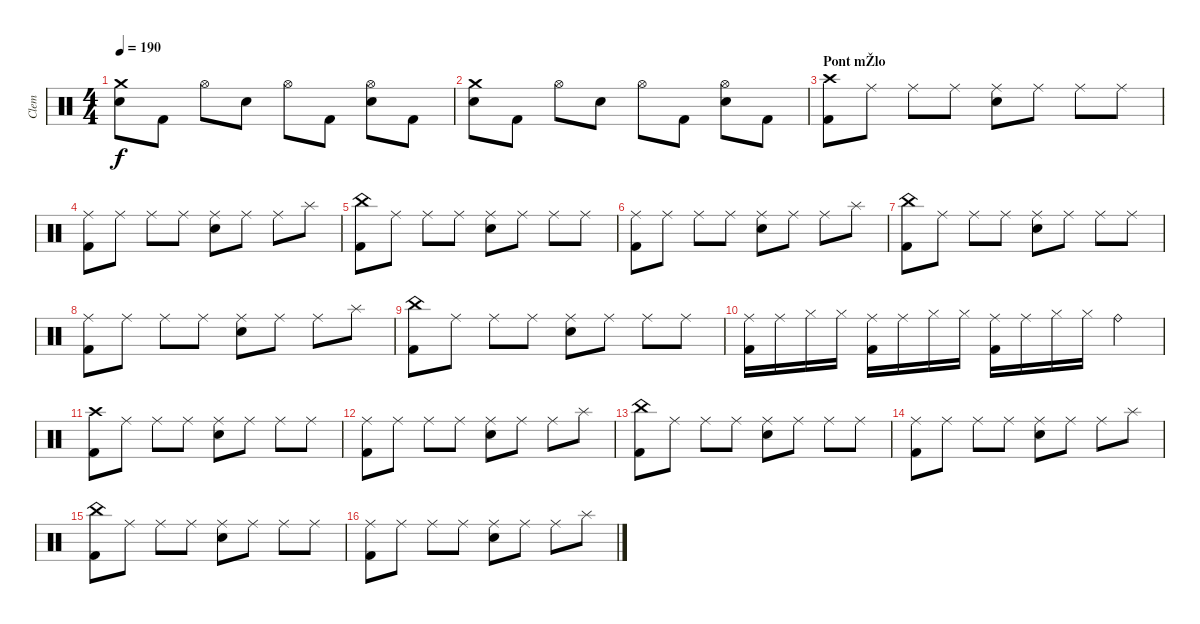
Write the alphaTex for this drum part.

\track ("Clem" "Clem") {instrument percussion}
\staff {score}
\articulation defaults
\ts (4 4)
\tempo 190
\clef neutral
\ks c
("Crash medium (hit)" "Electric Snare (hit)").8{dy f} "Kick (hit) 2".8 "Hi-Hat (open)".8 "Electric Snare (hit)".8 "Hi-Hat (open)".8 "Kick (hit) 2".8 ("Hi-Hat (open)" "Electric Snare (hit)").8 "Kick (hit) 2".8 |
("Crash medium (hit)" "Electric Snare (hit)").8 "Kick (hit) 2".8 "Hi-Hat (open)".8 "Electric Snare (hit)".8 "Hi-Hat (open)".8 "Kick (hit) 2".8 ("Hi-Hat (open)" "Electric Snare (hit)").8 "Kick (hit) 2".8 |
\section ("" "Pont mŽlo")
("Crash high (hit)" "Kick (hit) 2").8 "Ride (middle)".8 "Ride (middle)".8 "Ride (middle)".8 ("Ride (middle)" "Electric Snare (hit)").8 "Ride (middle)".8 "Ride (middle)".8 "Ride (middle)".8 |
("Ride (middle)" "Kick (hit) 2").8 "Ride (middle)".8 "Ride (middle)".8 "Ride (middle)".8 ("Ride (middle)" "Electric Snare (hit)").8 "Ride (middle)".8 "Ride (middle)".8 "Splash (hit)".8 |
("China (hit)" "Kick (hit) 2").8 "Ride (middle)".8 "Ride (middle)".8 "Ride (middle)".8 ("Ride (middle)" "Electric Snare (hit)").8 "Ride (middle)".8 "Ride (middle)".8 "Ride (middle)".8 |
("Ride (middle)" "Kick (hit) 2").8 "Ride (middle)".8 "Ride (middle)".8 "Ride (middle)".8 ("Ride (middle)" "Electric Snare (hit)").8 "Ride (middle)".8 "Ride (middle)".8 "Splash (hit)".8 |
("China (hit)" "Kick (hit) 2").8 "Ride (middle)".8 "Ride (middle)".8 "Ride (middle)".8 ("Ride (middle)" "Electric Snare (hit)").8 "Ride (middle)".8 "Ride (middle)".8 "Ride (middle)".8 |
("Ride (middle)" "Kick (hit) 2").8 "Ride (middle)".8 "Ride (middle)".8 "Ride (middle)".8 ("Ride (middle)" "Electric Snare (hit)").8 "Ride (middle)".8 "Ride (middle)".8 "Splash (hit)".8 |
("China (hit)" "Kick (hit) 2").8 "Ride (middle)".8 "Ride (middle)".8 "Ride (middle)".8 ("Ride (middle)" "Electric Snare (hit)").8 "Ride (middle)".8 "Ride (middle)".8 "Ride (middle)".8 |
("Ride (middle)" "Kick (hit) 2").16 "Ride (middle)".16 "Hi-Hat (closed)".16 "Hi-Hat (closed)".16 ("Ride (middle)" "Kick (hit) 2").16 "Ride (middle)".16 "Hi-Hat (closed)".16 "Hi-Hat (closed)".16 ("Ride (middle)" "Kick (hit) 2").16 "Ride (middle)".16 "Hi-Hat (closed)".16 "Hi-Hat (closed)".16 "Ride (bell)".4 |
("Crash high (hit)" "Kick (hit) 2").8 "Ride (middle)".8 "Ride (middle)".8 "Ride (middle)".8 ("Ride (middle)" "Electric Snare (hit)").8 "Ride (middle)".8 "Ride (middle)".8 "Ride (middle)".8 |
("Ride (middle)" "Kick (hit) 2").8 "Ride (middle)".8 "Ride (middle)".8 "Ride (middle)".8 ("Ride (middle)" "Electric Snare (hit)").8 "Ride (middle)".8 "Ride (middle)".8 "Splash (hit)".8 |
("China (hit)" "Kick (hit) 2").8 "Ride (middle)".8 "Ride (middle)".8 "Ride (middle)".8 ("Ride (middle)" "Electric Snare (hit)").8 "Ride (middle)".8 "Ride (middle)".8 "Ride (middle)".8 |
("Ride (middle)" "Kick (hit) 2").8 "Ride (middle)".8 "Ride (middle)".8 "Ride (middle)".8 ("Ride (middle)" "Electric Snare (hit)").8 "Ride (middle)".8 "Ride (middle)".8 "Splash (hit)".8 |
("China (hit)" "Kick (hit) 2").8 "Ride (middle)".8 "Ride (middle)".8 "Ride (middle)".8 ("Ride (middle)" "Electric Snare (hit)").8 "Ride (middle)".8 "Ride (middle)".8 "Ride (middle)".8 |
("Ride (middle)" "Kick (hit) 2").8 "Ride (middle)".8 "Ride (middle)".8 "Ride (middle)".8 ("Ride (middle)" "Electric Snare (hit)").8 "Ride (middle)".8 "Ride (middle)".8 "Splash (hit)".8
